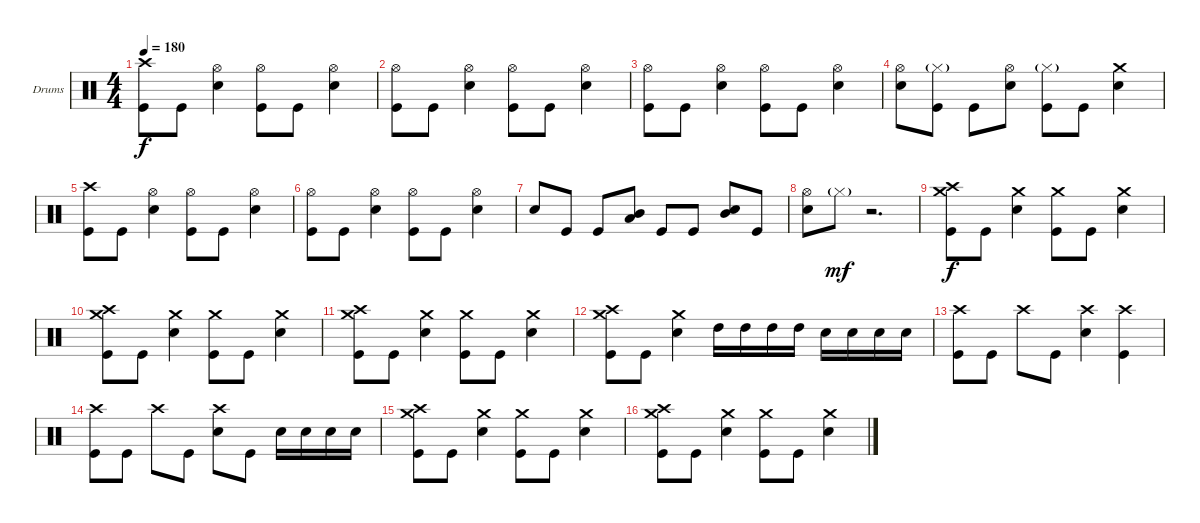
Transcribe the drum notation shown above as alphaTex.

\defaultSystemsLayout 4
\bracketExtendMode groupsimilarinstruments
\firstSystemTrackNameOrientation horizontal
\otherSystemsTrackNameOrientation horizontal
\track ("Барабаны" "Drums") {instrument percussion}
\staff {score}
\articulation defaults
\ts (4 4)
\tempo 180
\clef neutral
\scale
0.333333
\ks c
("Crash high (hit)" "Kick (hit)").8{dy f} "Kick (hit)".8 ("Hi-Hat (open)" "Snare (hit) 2").4 ("Hi-Hat (open)" "Kick (hit)").8 "Kick (hit)".8 ("Hi-Hat (open)" "Snare (hit) 2").4 |
\scale
0.333333 ("Hi-Hat (open)" "Kick (hit)").8 "Kick (hit)".8 ("Hi-Hat (open)" "Snare (hit) 2").4 ("Hi-Hat (open)" "Kick (hit)").8 "Kick (hit)".8 ("Hi-Hat (open)" "Snare (hit) 2").4 |
\scale
0.333333 ("Hi-Hat (open)" "Kick (hit)").8 "Kick (hit)".8 ("Hi-Hat (open)" "Snare (hit) 2").4 ("Hi-Hat (open)" "Kick (hit)").8 "Kick (hit)".8 ("Hi-Hat (open)" "Snare (hit) 2").4 |
\scale
0.333333 ("Hi-Hat (open)" "Snare (hit) 2").8 ("Hi-Hat (closed)"{g} "Kick (hit)").8 "Kick (hit)".8 ("Hi-Hat (open)" "Snare (hit) 2").8 ("Hi-Hat (closed)"{g} "Kick (hit)").8 "Kick (hit)".8 ("Crash medium (hit)" "Snare (hit) 2").4 |
\scale
0.333333 ("Crash high (hit)" "Kick (hit)").8 "Kick (hit)".8 ("Hi-Hat (open)" "Snare (hit) 2").4 ("Hi-Hat (open)" "Kick (hit)").8 "Kick (hit)".8 ("Hi-Hat (open)" "Snare (hit) 2").4 |
\scale
0.333333 ("Hi-Hat (open)" "Kick (hit)").8 "Kick (hit)".8 ("Hi-Hat (open)" "Snare (hit) 2").4 ("Hi-Hat (open)" "Kick (hit)").8 "Kick (hit)".8 ("Hi-Hat (open)" "Snare (hit) 2").4 |
\scale
0.333333 "Snare (hit) 2".8 "Kick (hit)".8 "Kick (hit)".8 ("Mid Tom (hit)" "Low Tom (hit)").8 "Kick (hit)".8 "Kick (hit)".8 ("Snare (hit) 2" "Mid Tom (hit)").8 "Kick (hit)".8 |
\scale
0.333333 ("Hi-Hat (open)" "Snare (hit) 2").8 "Hi-Hat (closed)"{g}.8{dy mf} r.2{d} |
\scale
0.333333 ("Crash high (hit)" "Crash medium (hit)" "Kick (hit)").8{dy f} "Kick (hit)".8 ("Crash medium (hit)" "Snare (hit) 2").4 ("Crash medium (hit)" "Kick (hit)").8 "Kick (hit)".8 ("Crash medium (hit)" "Snare (hit) 2").4 |
\scale
0.333333 ("Crash high (hit)" "Crash medium (hit)" "Kick (hit)").8 "Kick (hit)".8 ("Crash medium (hit)" "Snare (hit) 2").4 ("Crash medium (hit)" "Kick (hit)").8 "Kick (hit)".8 ("Crash medium (hit)" "Snare (hit) 2").4 |
\scale
0.333333 ("Crash high (hit)" "Crash medium (hit)" "Kick (hit)").8 "Kick (hit)".8 ("Crash medium (hit)" "Snare (hit) 2").4 ("Crash medium (hit)" "Kick (hit)").8 "Kick (hit)".8 ("Crash medium (hit)" "Snare (hit) 2").4 |
\scale
0.333333 ("Crash high (hit)" "Crash medium (hit)" "Kick (hit)").8 "Kick (hit)".8 ("Crash medium (hit)" "Snare (hit) 2").4 "High Tom (hit)".16 "High Tom (hit)".16 "High Tom (hit)".16 "High Tom (hit)".16 "Snare (hit) 2".16 "Snare (hit) 2".16 "Snare (hit) 2".16 "Snare (hit) 2".16 |
\scale
0.333333 ("Crash high (hit)" "Kick (hit)").8 "Kick (hit)".8 "Crash high (hit)".8 "Kick (hit)".8 ("Crash high (hit)" "Snare (hit) 2").4 ("Crash high (hit)" "Kick (hit)").4 |
\scale
0.333333 ("Crash high (hit)" "Kick (hit)").8 "Kick (hit)".8 "Crash high (hit)".8 "Kick (hit)".8 ("Crash high (hit)" "Snare (hit) 2").8 "Kick (hit)".8 "Snare (hit) 2".16 "Snare (hit) 2".16 "Snare (hit) 2".16 "Snare (hit) 2".16 |
\scale
0.333333 ("Crash high (hit)" "Crash medium (hit)" "Kick (hit)").8 "Kick (hit)".8 ("Crash medium (hit)" "Snare (hit) 2").4 ("Crash medium (hit)" "Kick (hit)").8 "Kick (hit)".8 ("Crash medium (hit)" "Snare (hit) 2").4 |
\scale
0.333333 ("Crash high (hit)" "Crash medium (hit)" "Kick (hit)").8 "Kick (hit)".8 ("Crash medium (hit)" "Snare (hit) 2").4 ("Crash medium (hit)" "Kick (hit)").8 "Kick (hit)".8 ("Crash medium (hit)" "Snare (hit) 2").4
